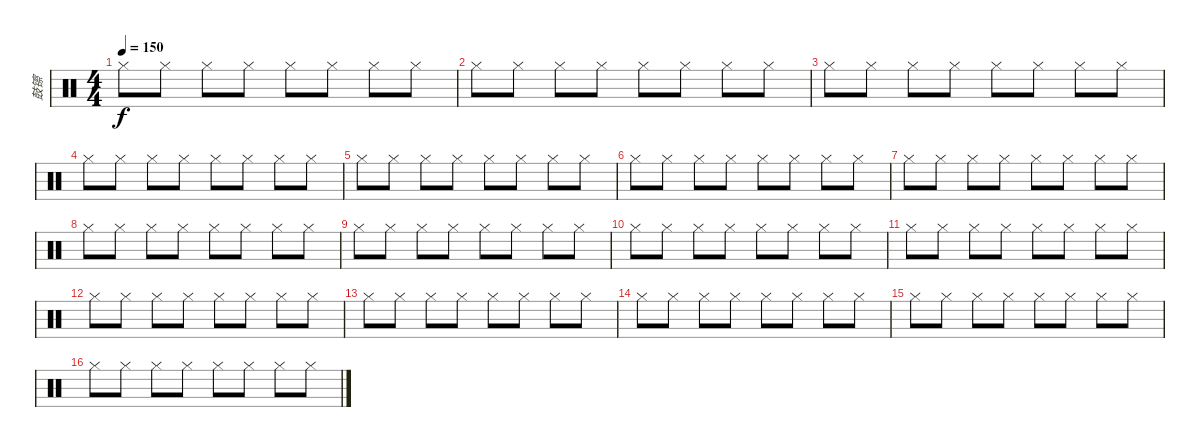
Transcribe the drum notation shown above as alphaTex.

\track ("鼓镲" "鼓镲") {instrument percussion}
\staff {score}
\articulation defaults
\ts (4 4)
\tempo 150
\clef neutral
\ks c "Hi-Hat (closed)".8{dy f} "Hi-Hat (closed)".8 "Hi-Hat (closed)".8 "Hi-Hat (closed)".8 "Hi-Hat (closed)".8 "Hi-Hat (closed)".8 "Hi-Hat (closed)".8 "Hi-Hat (closed)".8
|
"Hi-Hat (closed)".8 "Hi-Hat (closed)".8 "Hi-Hat (closed)".8 "Hi-Hat (closed)".8 "Hi-Hat (closed)".8 "Hi-Hat (closed)".8 "Hi-Hat (closed)".8 "Hi-Hat (closed)".8 |
"Hi-Hat (closed)".8 "Hi-Hat (closed)".8 "Hi-Hat (closed)".8 "Hi-Hat (closed)".8 "Hi-Hat (closed)".8 "Hi-Hat (closed)".8 "Hi-Hat (closed)".8 "Hi-Hat (closed)".8 |
"Hi-Hat (closed)".8 "Hi-Hat (closed)".8 "Hi-Hat (closed)".8 "Hi-Hat (closed)".8 "Hi-Hat (closed)".8 "Hi-Hat (closed)".8 "Hi-Hat (closed)".8 "Hi-Hat (closed)".8 |
"Hi-Hat (closed)".8 "Hi-Hat (closed)".8 "Hi-Hat (closed)".8 "Hi-Hat (closed)".8 "Hi-Hat (closed)".8 "Hi-Hat (closed)".8 "Hi-Hat (closed)".8 "Hi-Hat (closed)".8 |
"Hi-Hat (closed)".8 "Hi-Hat (closed)".8 "Hi-Hat (closed)".8 "Hi-Hat (closed)".8 "Hi-Hat (closed)".8 "Hi-Hat (closed)".8 "Hi-Hat (closed)".8 "Hi-Hat (closed)".8 |
"Hi-Hat (closed)".8 "Hi-Hat (closed)".8 "Hi-Hat (closed)".8 "Hi-Hat (closed)".8 "Hi-Hat (closed)".8 "Hi-Hat (closed)".8 "Hi-Hat (closed)".8 "Hi-Hat (closed)".8 |
"Hi-Hat (closed)".8 "Hi-Hat (closed)".8 "Hi-Hat (closed)".8 "Hi-Hat (closed)".8 "Hi-Hat (closed)".8 "Hi-Hat (closed)".8 "Hi-Hat (closed)".8 "Hi-Hat (closed)".8 |
"Hi-Hat (closed)".8 "Hi-Hat (closed)".8 "Hi-Hat (closed)".8 "Hi-Hat (closed)".8 "Hi-Hat (closed)".8 "Hi-Hat (closed)".8 "Hi-Hat (closed)".8 "Hi-Hat (closed)".8 |
"Hi-Hat (closed)".8 "Hi-Hat (closed)".8 "Hi-Hat (closed)".8 "Hi-Hat (closed)".8 "Hi-Hat (closed)".8 "Hi-Hat (closed)".8 "Hi-Hat (closed)".8 "Hi-Hat (closed)".8 |
"Hi-Hat (closed)".8 "Hi-Hat (closed)".8 "Hi-Hat (closed)".8 "Hi-Hat (closed)".8 "Hi-Hat (closed)".8 "Hi-Hat (closed)".8 "Hi-Hat (closed)".8 "Hi-Hat (closed)".8 |
"Hi-Hat (closed)".8 "Hi-Hat (closed)".8 "Hi-Hat (closed)".8 "Hi-Hat (closed)".8 "Hi-Hat (closed)".8 "Hi-Hat (closed)".8 "Hi-Hat (closed)".8 "Hi-Hat (closed)".8 |
"Hi-Hat (closed)".8 "Hi-Hat (closed)".8 "Hi-Hat (closed)".8 "Hi-Hat (closed)".8 "Hi-Hat (closed)".8 "Hi-Hat (closed)".8 "Hi-Hat (closed)".8 "Hi-Hat (closed)".8 |
"Hi-Hat (closed)".8 "Hi-Hat (closed)".8 "Hi-Hat (closed)".8 "Hi-Hat (closed)".8 "Hi-Hat (closed)".8 "Hi-Hat (closed)".8 "Hi-Hat (closed)".8 "Hi-Hat (closed)".8 |
"Hi-Hat (closed)".8 "Hi-Hat (closed)".8 "Hi-Hat (closed)".8 "Hi-Hat (closed)".8 "Hi-Hat (closed)".8 "Hi-Hat (closed)".8 "Hi-Hat (closed)".8 "Hi-Hat (closed)".8 |
"Hi-Hat (closed)".8 "Hi-Hat (closed)".8 "Hi-Hat (closed)".8 "Hi-Hat (closed)".8 "Hi-Hat (closed)".8 "Hi-Hat (closed)".8 "Hi-Hat (closed)".8 "Hi-Hat (closed)".8
